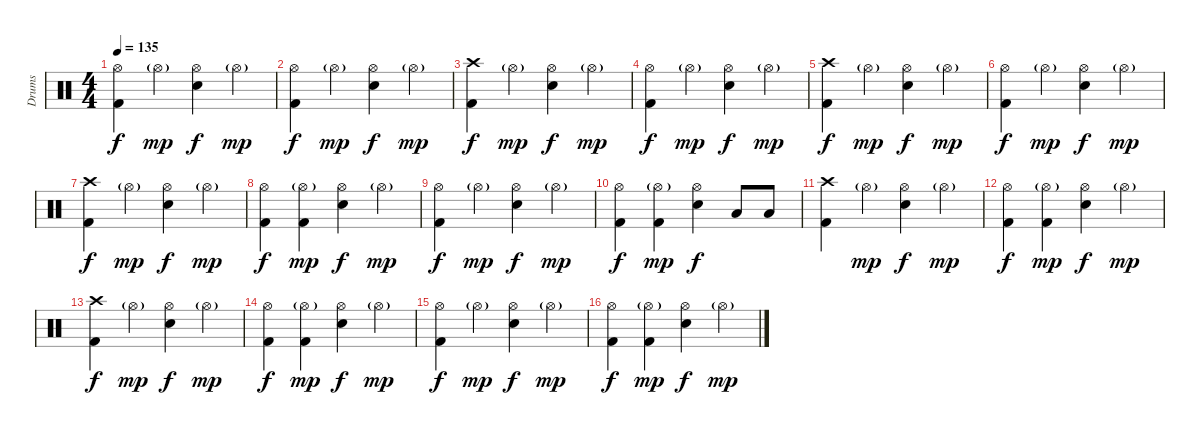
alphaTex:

\track ("Drums" "Drums") {instrument percussion}
\staff {score}
\articulation defaults
\ts (4 4)
\tempo 135
\clef neutral
\ks c
("Hi-Hat (open)" "Kick (hit) 2").4{dy f} "Hi-Hat (open)"{g}.4{dy mp} ("Hi-Hat (open)" "Snare (hit) 2").4{dy f} "Hi-Hat (open)"{g}.4{dy mp} |
("Hi-Hat (open)" "Kick (hit) 2").4{dy f} "Hi-Hat (open)"{g}.4{dy mp} ("Hi-Hat (open)" "Snare (hit) 2").4{dy f} "Hi-Hat (open)"{g}.4{dy mp} |
("Crash high (hit)" "Kick (hit) 2").4{dy f} "Hi-Hat (open)"{g}.4{dy mp} ("Hi-Hat (open)" "Snare (hit) 2").4{dy f} "Hi-Hat (open)"{g}.4{dy mp} |
("Hi-Hat (open)" "Kick (hit) 2").4{dy f} "Hi-Hat (open)"{g}.4{dy mp} ("Hi-Hat (open)" "Snare (hit) 2").4{dy f} "Hi-Hat (open)"{g}.4{dy mp} |
("Crash high (hit)" "Kick (hit) 2").4{dy f} "Hi-Hat (open)"{g}.4{dy mp} ("Hi-Hat (open)" "Snare (hit) 2").4{dy f} "Hi-Hat (open)"{g}.4{dy mp} |
("Hi-Hat (open)" "Kick (hit) 2").4{dy f} "Hi-Hat (open)"{g}.4{dy mp} ("Hi-Hat (open)" "Snare (hit) 2").4{dy f} "Hi-Hat (open)"{g}.4{dy mp} |
("Crash high (hit)" "Kick (hit) 2").4{dy f} "Hi-Hat (open)"{g}.4{dy mp} ("Hi-Hat (open)" "Snare (hit) 2").4{dy f} "Hi-Hat (open)"{g}.4{dy mp} |
("Hi-Hat (open)" "Kick (hit) 2").4{dy f} ("Hi-Hat (open)"{g} "Kick (hit) 2").4{dy mp} ("Hi-Hat (open)" "Snare (hit) 2").4{dy f} "Hi-Hat (open)"{g}.4{dy mp} |
("Hi-Hat (open)" "Kick (hit) 2").4{dy f} "Hi-Hat (open)"{g}.4{dy mp} ("Hi-Hat (open)" "Snare (hit) 2").4{dy f} "Hi-Hat (open)"{g}.4{dy mp} |
("Hi-Hat (open)" "Kick (hit) 2").4{dy f} ("Hi-Hat (open)"{g} "Kick (hit) 2").4{dy mp} ("Hi-Hat (open)" "Snare (hit) 2").4{dy f} "Low Tom (hit)".8 "Low Tom (hit)".8 |
("Crash high (hit)" "Kick (hit) 2").4 "Hi-Hat (open)"{g}.4{dy mp} ("Hi-Hat (open)" "Snare (hit) 2").4{dy f} "Hi-Hat (open)"{g}.4{dy mp} |
("Hi-Hat (open)" "Kick (hit) 2").4{dy f} ("Hi-Hat (open)"{g} "Kick (hit) 2").4{dy mp} ("Hi-Hat (open)" "Snare (hit) 2").4{dy f} "Hi-Hat (open)"{g}.4{dy mp} |
("Crash high (hit)" "Kick (hit) 2").4{dy f} "Hi-Hat (open)"{g}.4{dy mp} ("Hi-Hat (open)" "Snare (hit) 2").4{dy f} "Hi-Hat (open)"{g}.4{dy mp} |
("Hi-Hat (open)" "Kick (hit) 2").4{dy f} ("Hi-Hat (open)"{g} "Kick (hit) 2").4{dy mp} ("Hi-Hat (open)" "Snare (hit) 2").4{dy f} "Hi-Hat (open)"{g}.4{dy mp} |
("Hi-Hat (open)" "Kick (hit) 2").4{dy f} "Hi-Hat (open)"{g}.4{dy mp} ("Hi-Hat (open)" "Snare (hit) 2").4{dy f} "Hi-Hat (open)"{g}.4{dy mp} |
("Hi-Hat (open)" "Kick (hit) 2").4{dy f} ("Hi-Hat (open)"{g} "Kick (hit) 2").4{dy mp} ("Hi-Hat (open)" "Snare (hit) 2").4{dy f} "Hi-Hat (open)"{g}.4{dy mp}
